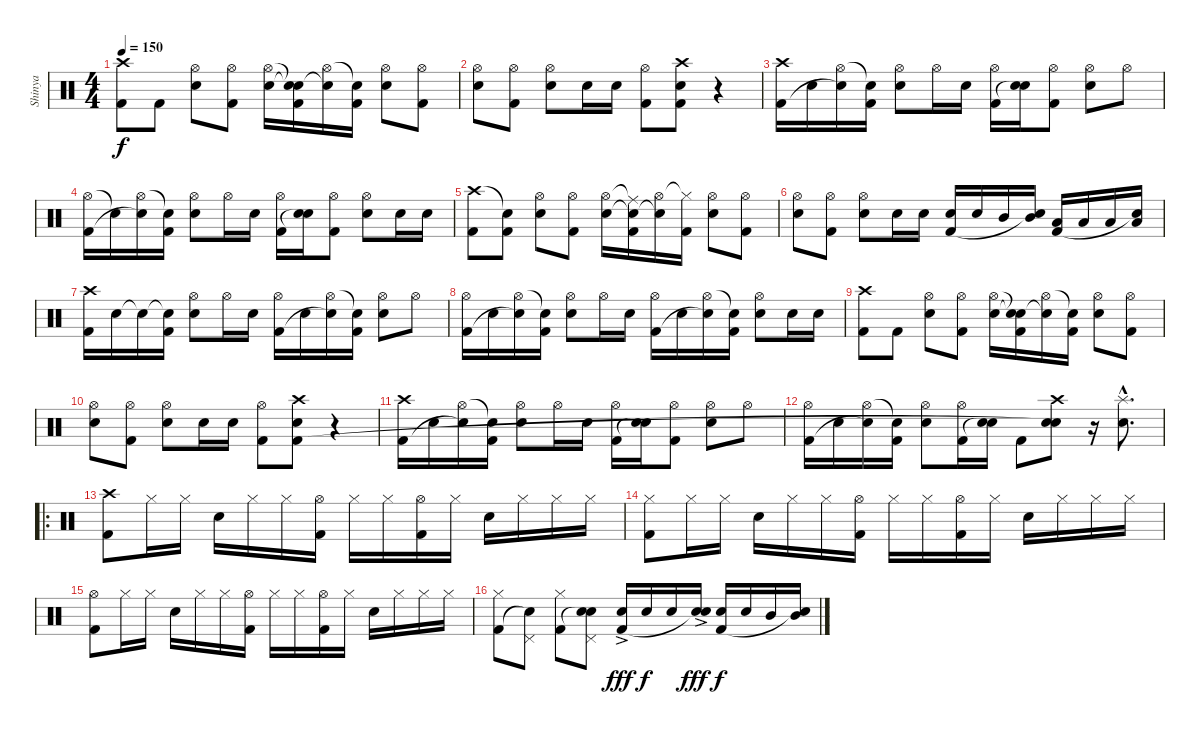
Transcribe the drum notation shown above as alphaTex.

\track ("Shinya" "Shinya") {instrument percussion}
\staff {score}
\articulation defaults
\ts (4 4)
\tempo 150
\clef neutral
\ks c
("Crash high (hit)" "Kick (hit) 2").8{dy f} "Kick (hit) 2".8 ("Hi-Hat (open)" "Electric Snare (hit)").8 ("Hi-Hat (open)" "Kick (hit) 2").8 ("Hi-Hat (open)" "Electric Snare (hit)").16 ("Snare (hit)"{t} "Snare (hit)"{t} "Kick (hit) 2").16 ("Hi-Hat (open)" "Snare (hit)"{t}).16 ("Snare (hit)"{t} "Kick (hit) 2").16 ("Hi-Hat (open)" "Electric Snare (hit)").8 ("Hi-Hat (open)" "Kick (hit) 2").8 |
("Hi-Hat (open)" "Electric Snare (hit)").8 ("Hi-Hat (open)" "Kick (hit) 2").8 ("Hi-Hat (open)" "Electric Snare (hit)").8 "Electric Snare (hit)".16 "Electric Snare (hit)".16 ("Hi-Hat (open)" "Kick (hit) 2").8 ("Crash high (hit)" "Electric Snare (hit)" "Kick (hit) 2").8 r.4 |
("Crash high (hit)" "Kick (hit) 2").16 "Electric Snare (hit)".16 ("Hi-Hat (open)" "Snare (hit)"{t}).16 ("Snare (hit)"{t} "Kick (hit) 2").16 ("Hi-Hat (open)" "Electric Snare (hit)").8 "Hi-Hat (open)".16 "Electric Snare (hit)".16 ("Hi-Hat (open)" "Kick (hit) 2").16 ("Electric Snare (hit)" "Snare (hit)"{t}).16 ("Hi-Hat (open)" "Kick (hit) 2").8 ("Hi-Hat (open)" "Electric Snare (hit)").8 "Hi-Hat (open)".8 |
("Hi-Hat (open)" "Kick (hit) 2").16 "Snare (hit)"{t}.16 ("Hi-Hat (open)" "Snare (hit)"{t}).16 ("Snare (hit)"{t} "Kick (hit) 2").16 ("Hi-Hat (open)" "Electric Snare (hit)").8 "Hi-Hat (open)".16 "Electric Snare (hit)".16 ("Hi-Hat (open)" "Kick (hit) 2").16 ("Electric Snare (hit)" "Snare (hit)"{t}).16 ("Hi-Hat (open)" "Kick (hit) 2").8 ("Hi-Hat (open)" "Electric Snare (hit)").8 "Electric Snare (hit)".16 "Electric Snare (hit)".16 |
("Crash high (hit)" "Kick (hit) 2").8 ("Snare (hit)"{t} "Kick (hit) 2").8 ("Hi-Hat (open)" "Electric Snare (hit)").8 ("Hi-Hat (open)" "Kick (hit) 2").8 ("Hi-Hat (open)" "Electric Snare (hit)").16 ("Ride (middle)"{t} "Snare (hit)"{t} "Kick (hit) 2").16 ("Hi-Hat (open)" "Snare (hit)"{t}).16 ("Hi-Hat (closed)"{t} "Kick (hit) 2").16 ("Hi-Hat (open)" "Electric Snare (hit)").8 ("Hi-Hat (open)" "Kick (hit) 2").8 |
("Hi-Hat (open)" "Electric Snare (hit)").8 ("Hi-Hat (open)" "Kick (hit) 2").8 ("Hi-Hat (open)" "Electric Snare (hit)").8 "Electric Snare (hit)".16 "Electric Snare (hit)".16 ("Electric Snare (hit)" "Kick (hit) 2").16 "Electric Snare (hit)".16 "Mid Tom (hit)".16 ("Mid Tom (hit)" "Snare (hit)"{t}).16 ("Low Tom (hit)" "Kick (hit) 2").16 "Low Tom (hit)".16 "Low Floor Tom (hit)".16 ("Low Floor Tom (hit)" "Snare (hit)"{t}).16 |
("Crash high (hit)" "Kick (hit) 2").16 "Electric Snare (hit)".16 "Snare (hit)"{t}.16 ("Snare (hit)"{t} "Kick (hit) 2").16 ("Hi-Hat (open)" "Electric Snare (hit)").8 "Hi-Hat (open)".16 "Electric Snare (hit)".16 ("Hi-Hat (open)" "Kick (hit) 2").16 "Electric Snare (hit)".16 ("Hi-Hat (open)" "Snare (hit)"{t}).16 ("Snare (hit)"{t} "Kick (hit) 2").16 ("Hi-Hat (open)" "Electric Snare (hit)").8 "Hi-Hat (open)".8 |
("Hi-Hat (open)" "Kick (hit) 2").16 "Electric Snare (hit)".16 ("Hi-Hat (open)" "Snare (hit)"{t}).16 ("Snare (hit)"{t} "Kick (hit) 2").16 ("Hi-Hat (open)" "Electric Snare (hit)").8 "Hi-Hat (open)".16 "Electric Snare (hit)".16 ("Hi-Hat (open)" "Kick (hit) 2").16 "Electric Snare (hit)".16 ("Hi-Hat (open)" "Snare (hit)"{t}).16 ("Snare (hit)"{t} "Kick (hit) 2").16 ("Hi-Hat (open)" "Electric Snare (hit)").8 "Electric Snare (hit)".16 "Electric Snare (hit)".16 |
("Crash high (hit)" "Kick (hit) 2").8 "Kick (hit) 2".8 ("Hi-Hat (open)" "Electric Snare (hit)").8 ("Hi-Hat (open)" "Kick (hit) 2").8 ("Hi-Hat (open)" "Electric Snare (hit)").16 ("Snare (hit)"{t} "Snare (hit)"{t} "Kick (hit) 2").16 ("Hi-Hat (open)" "Snare (hit)"{t}).16 ("Snare (hit)"{t} "Kick (hit) 2").16 ("Hi-Hat (open)" "Electric Snare (hit)").8 ("Hi-Hat (open)" "Kick (hit) 2").8 |
("Hi-Hat (open)" "Electric Snare (hit)").8 ("Hi-Hat (open)" "Kick (hit) 2").8 ("Hi-Hat (open)" "Electric Snare (hit)").8 "Electric Snare (hit)".16 "Electric Snare (hit)".16 ("Hi-Hat (open)" "Kick (hit) 2").8 ("Crash high (hit)" "Electric Snare (hit)" "Kick (hit) 2").8 r.4 |
("Crash high (hit)" "Kick (hit) 2").16 "Electric Snare (hit)".16 ("Hi-Hat (open)" "Snare (hit)"{t}).16 ("Snare (hit)"{t} "Kick (hit) 2").16 ("Hi-Hat (open)" "Electric Snare (hit)").8 "Hi-Hat (open)".16 "Electric Snare (hit)".16 ("Hi-Hat (open)" "Kick (hit) 2").16 ("Electric Snare (hit)" "Snare (hit)"{t}).16 ("Hi-Hat (open)" "Kick (hit) 2").8 ("Hi-Hat (open)" "Electric Snare (hit)").8 "Hi-Hat (open)".8 |
("Hi-Hat (open)" "Kick (hit) 2").16 "Electric Snare (hit)".16 ("Hi-Hat (open)" "Snare (hit)"{t}).16 ("Snare (hit)"{t} "Kick (hit) 2").16 ("Hi-Hat (open)" "Electric Snare (hit)").8 ("Hi-Hat (open)" "Kick (hit) 2").16 ("Electric Snare (hit)" "Snare (hit)"{t}).16 "Kick (hit) 2".8 ("Crash high (hit)" "Electric Snare (hit)" "Snare (hit)"{t}).8 r.16 ("Splash (hit)"{hac} "Electric Snare (hit)"{hac}).8{d} |
\ro
("Crash high (hit)" "Kick (hit) 2").8 "Hi-Hat (closed)".16 "Hi-Hat (closed)".16 "Electric Snare (hit)".16 "Hi-Hat (closed)".16 "Hi-Hat (closed)".16 ("Hi-Hat (open)" "Kick (hit) 2").16 "Hi-Hat (closed)".16 "Hi-Hat (closed)".16 ("Hi-Hat (open)" "Kick (hit) 2").16 "Hi-Hat (closed)".16 "Electric Snare (hit)".16 "Hi-Hat (closed)".16 "Hi-Hat (closed)".16 "Hi-Hat (closed)".16 |
("Hi-Hat (closed)" "Kick (hit) 2").8 "Hi-Hat (closed)".16 "Hi-Hat (closed)".16 "Electric Snare (hit)".16 "Hi-Hat (closed)".16 "Hi-Hat (closed)".16 ("Hi-Hat (open)" "Kick (hit) 2").16 "Hi-Hat (closed)".16 "Hi-Hat (closed)".16 ("Hi-Hat (open)" "Kick (hit) 2").16 "Hi-Hat (closed)".16 "Electric Snare (hit)".16 "Hi-Hat (closed)".16 "Hi-Hat (closed)".16 "Hi-Hat (closed)".16 |
("Hi-Hat (open)" "Kick (hit) 2").8 "Hi-Hat (closed)".16 "Hi-Hat (closed)".16 "Electric Snare (hit)".16 "Hi-Hat (closed)".16 "Hi-Hat (closed)".16 ("Hi-Hat (open)" "Kick (hit) 2").16 "Hi-Hat (closed)".16 "Hi-Hat (closed)".16 ("Hi-Hat (open)" "Kick (hit) 2").16 "Hi-Hat (closed)".16 "Electric Snare (hit)".16 "Hi-Hat (closed)".16 "Hi-Hat (closed)".16 "Hi-Hat (closed)".16 |
("Hi-Hat (closed)" "Kick (hit) 2").8 ("Pedal Hi-Hat (hit)" "Snare (hit)"{t}).8 ("Hi-Hat (closed)" "Kick (hit) 2").8 ("Pedal Hi-Hat (hit)" "Snare (hit)"{t} "Electric Snare (hit)").8 ("Electric Snare (hit)"{ac} "Kick (hit) 2").16{dy fff} "Electric Snare (hit)".16{dy f} "Electric Snare (hit)".16 ("Electric Snare (hit)"{ac} "Snare (hit)"{t}).16{dy fff} ("Electric Snare (hit)" "Kick (hit) 2").16{dy f} "Electric Snare (hit)".16 "Mid Tom (hit)".16 ("Mid Tom (hit)" "Snare (hit)"{t}).16
